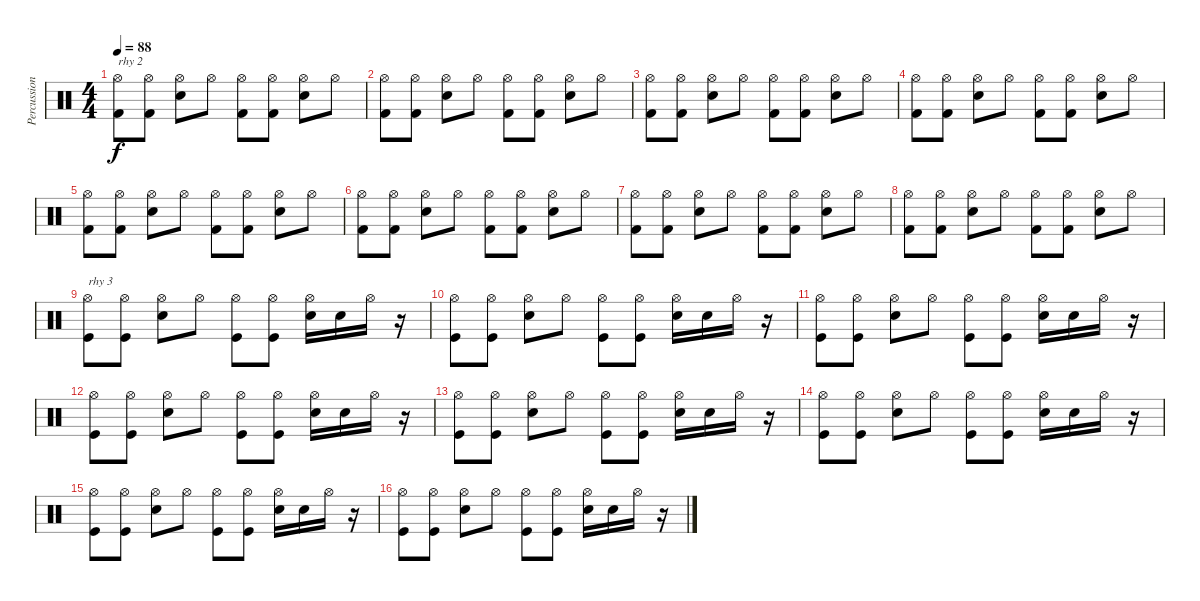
\track ("Percussion" "Percussion") {instrument percussion}
\staff {score}
\articulation defaults
\ts (4 4)
\tempo 88
\clef neutral
\ks c
("Hi-Hat (open)" "Kick (hit) 2").8{txt "rhy 2" dy f} ("Hi-Hat (open)" "Kick (hit) 2").8 ("Hi-Hat (open)" "Snare (hit) 2").8 "Hi-Hat (open)".8 ("Hi-Hat (open)" "Kick (hit) 2").8 ("Hi-Hat (open)" "Kick (hit) 2").8 ("Hi-Hat (open)" "Snare (hit) 2").8 "Hi-Hat (open)".8 |
("Hi-Hat (open)" "Kick (hit) 2").8 ("Hi-Hat (open)" "Kick (hit) 2").8 ("Hi-Hat (open)" "Snare (hit) 2").8 "Hi-Hat (open)".8 ("Hi-Hat (open)" "Kick (hit) 2").8 ("Hi-Hat (open)" "Kick (hit) 2").8 ("Hi-Hat (open)" "Snare (hit) 2").8 "Hi-Hat (open)".8 |
("Hi-Hat (open)" "Kick (hit) 2").8 ("Hi-Hat (open)" "Kick (hit) 2").8 ("Hi-Hat (open)" "Snare (hit) 2").8 "Hi-Hat (open)".8 ("Hi-Hat (open)" "Kick (hit) 2").8 ("Hi-Hat (open)" "Kick (hit) 2").8 ("Hi-Hat (open)" "Snare (hit) 2").8 "Hi-Hat (open)".8 |
("Hi-Hat (open)" "Kick (hit) 2").8 ("Hi-Hat (open)" "Kick (hit) 2").8 ("Hi-Hat (open)" "Snare (hit) 2").8 "Hi-Hat (open)".8 ("Hi-Hat (open)" "Kick (hit) 2").8 ("Hi-Hat (open)" "Kick (hit) 2").8 ("Hi-Hat (open)" "Snare (hit) 2").8 "Hi-Hat (open)".8 |
("Hi-Hat (open)" "Kick (hit) 2").8 ("Hi-Hat (open)" "Kick (hit) 2").8 ("Hi-Hat (open)" "Snare (hit) 2").8 "Hi-Hat (open)".8 ("Hi-Hat (open)" "Kick (hit) 2").8 ("Hi-Hat (open)" "Kick (hit) 2").8 ("Hi-Hat (open)" "Snare (hit) 2").8 "Hi-Hat (open)".8 |
("Hi-Hat (open)" "Kick (hit) 2").8 ("Hi-Hat (open)" "Kick (hit) 2").8 ("Hi-Hat (open)" "Snare (hit) 2").8 "Hi-Hat (open)".8 ("Hi-Hat (open)" "Kick (hit) 2").8 ("Hi-Hat (open)" "Kick (hit) 2").8 ("Hi-Hat (open)" "Snare (hit) 2").8 "Hi-Hat (open)".8 |
("Hi-Hat (open)" "Kick (hit) 2").8 ("Hi-Hat (open)" "Kick (hit) 2").8 ("Hi-Hat (open)" "Snare (hit) 2").8 "Hi-Hat (open)".8 ("Hi-Hat (open)" "Kick (hit) 2").8 ("Hi-Hat (open)" "Kick (hit) 2").8 ("Hi-Hat (open)" "Snare (hit) 2").8 "Hi-Hat (open)".8 |
("Hi-Hat (open)" "Kick (hit) 2").8 ("Hi-Hat (open)" "Kick (hit) 2").8 ("Hi-Hat (open)" "Snare (hit) 2").8 "Hi-Hat (open)".8 ("Hi-Hat (open)" "Kick (hit) 2").8 ("Hi-Hat (open)" "Kick (hit) 2").8 ("Hi-Hat (open)" "Snare (hit) 2").8 "Hi-Hat (open)".8 |
("Hi-Hat (open)" "Kick (hit)").8{txt "rhy 3"} ("Hi-Hat (open)" "Kick (hit)").8 ("Hi-Hat (open)" "Snare (hit) 2").8 "Hi-Hat (open)".8 ("Hi-Hat (open)" "Kick (hit)").8 ("Hi-Hat (open)" "Kick (hit)").8 ("Hi-Hat (open)" "Snare (hit) 2").16 "Snare (hit) 2".16 "Hi-Hat (open)".16 r.16 |
("Hi-Hat (open)" "Kick (hit)").8 ("Hi-Hat (open)" "Kick (hit)").8 ("Hi-Hat (open)" "Snare (hit) 2").8 "Hi-Hat (open)".8 ("Hi-Hat (open)" "Kick (hit)").8 ("Hi-Hat (open)" "Kick (hit)").8 ("Hi-Hat (open)" "Snare (hit) 2").16 "Snare (hit) 2".16 "Hi-Hat (open)".16 r.16 |
("Hi-Hat (open)" "Kick (hit)").8 ("Hi-Hat (open)" "Kick (hit)").8 ("Hi-Hat (open)" "Snare (hit) 2").8 "Hi-Hat (open)".8 ("Hi-Hat (open)" "Kick (hit)").8 ("Hi-Hat (open)" "Kick (hit)").8 ("Hi-Hat (open)" "Snare (hit) 2").16 "Snare (hit) 2".16 "Hi-Hat (open)".16 r.16 |
("Hi-Hat (open)" "Kick (hit)").8 ("Hi-Hat (open)" "Kick (hit)").8 ("Hi-Hat (open)" "Snare (hit) 2").8 "Hi-Hat (open)".8 ("Hi-Hat (open)" "Kick (hit)").8 ("Hi-Hat (open)" "Kick (hit)").8 ("Hi-Hat (open)" "Snare (hit) 2").16 "Snare (hit) 2".16 "Hi-Hat (open)".16 r.16 |
("Hi-Hat (open)" "Kick (hit)").8 ("Hi-Hat (open)" "Kick (hit)").8 ("Hi-Hat (open)" "Snare (hit) 2").8 "Hi-Hat (open)".8 ("Hi-Hat (open)" "Kick (hit)").8 ("Hi-Hat (open)" "Kick (hit)").8 ("Hi-Hat (open)" "Snare (hit) 2").16 "Snare (hit) 2".16 "Hi-Hat (open)".16 r.16 |
("Hi-Hat (open)" "Kick (hit)").8 ("Hi-Hat (open)" "Kick (hit)").8 ("Hi-Hat (open)" "Snare (hit) 2").8 "Hi-Hat (open)".8 ("Hi-Hat (open)" "Kick (hit)").8 ("Hi-Hat (open)" "Kick (hit)").8 ("Hi-Hat (open)" "Snare (hit) 2").16 "Snare (hit) 2".16 "Hi-Hat (open)".16 r.16 |
("Hi-Hat (open)" "Kick (hit)").8 ("Hi-Hat (open)" "Kick (hit)").8 ("Hi-Hat (open)" "Snare (hit) 2").8 "Hi-Hat (open)".8 ("Hi-Hat (open)" "Kick (hit)").8 ("Hi-Hat (open)" "Kick (hit)").8 ("Hi-Hat (open)" "Snare (hit) 2").16 "Snare (hit) 2".16 "Hi-Hat (open)".16 r.16 |
("Hi-Hat (open)" "Kick (hit)").8 ("Hi-Hat (open)" "Kick (hit)").8 ("Hi-Hat (open)" "Snare (hit) 2").8 "Hi-Hat (open)".8 ("Hi-Hat (open)" "Kick (hit)").8 ("Hi-Hat (open)" "Kick (hit)").8 ("Hi-Hat (open)" "Snare (hit) 2").16 "Snare (hit) 2".16 "Hi-Hat (open)".16 r.16
